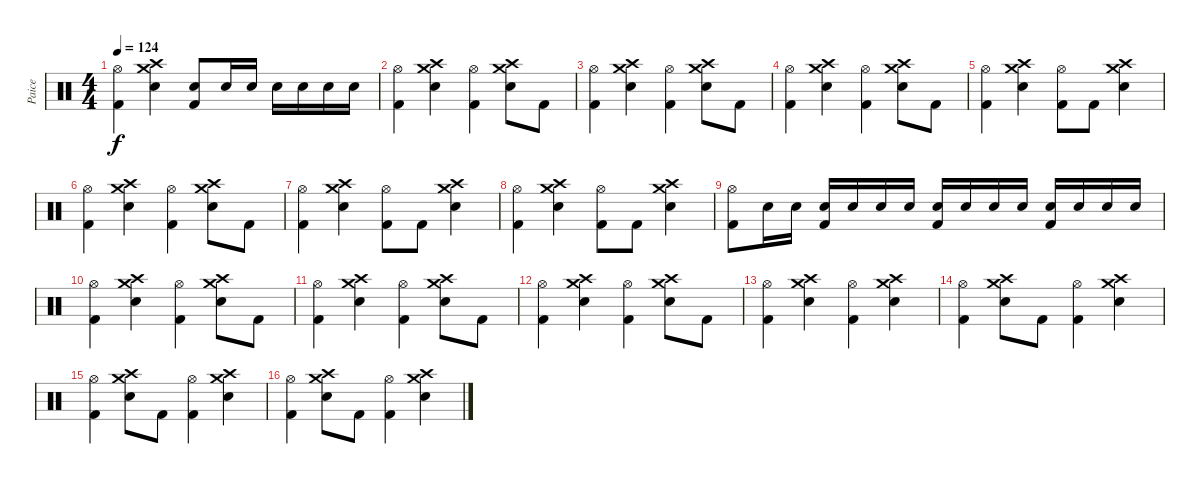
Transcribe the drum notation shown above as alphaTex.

\track ("Paice" "Paice") {instrument percussion}
\staff {score}
\articulation defaults
\ts (4 4)
\tempo 124
\clef neutral
\ks c
("Hi-Hat (open)" "Kick (hit) 2").4{dy f} ("Crash high (hit)" "Crash medium (hit)" "Electric Snare (hit)").4 ("Electric Snare (hit)" "Kick (hit) 2").8 "Electric Snare (hit)".16 "Electric Snare (hit)".16 "Electric Snare (hit)".16 "Electric Snare (hit)".16 "Electric Snare (hit)".16 "Electric Snare (hit)".16 |
("Hi-Hat (open)" "Kick (hit) 2").4 ("Crash high (hit)" "Crash medium (hit)" "Electric Snare (hit)").4 ("Hi-Hat (open)" "Kick (hit) 2").4 ("Crash high (hit)" "Crash medium (hit)" "Electric Snare (hit)").8 "Kick (hit) 2".8 |
("Hi-Hat (open)" "Kick (hit) 2").4 ("Crash high (hit)" "Crash medium (hit)" "Electric Snare (hit)").4 ("Hi-Hat (open)" "Kick (hit) 2").4 ("Crash high (hit)" "Crash medium (hit)" "Electric Snare (hit)").8 "Kick (hit) 2".8 |
("Hi-Hat (open)" "Kick (hit) 2").4 ("Crash high (hit)" "Crash medium (hit)" "Electric Snare (hit)").4 ("Hi-Hat (open)" "Kick (hit) 2").4 ("Crash high (hit)" "Crash medium (hit)" "Electric Snare (hit)").8 "Kick (hit) 2".8 |
("Hi-Hat (open)" "Kick (hit) 2").4 ("Crash high (hit)" "Crash medium (hit)" "Electric Snare (hit)").4 ("Hi-Hat (open)" "Kick (hit) 2").8 "Kick (hit) 2".8 ("Crash high (hit)" "Crash medium (hit)" "Electric Snare (hit)").4 |
("Hi-Hat (open)" "Kick (hit) 2").4 ("Crash high (hit)" "Crash medium (hit)" "Electric Snare (hit)").4 ("Hi-Hat (open)" "Kick (hit) 2").4 ("Crash high (hit)" "Crash medium (hit)" "Electric Snare (hit)").8 "Kick (hit) 2".8 |
("Hi-Hat (open)" "Kick (hit) 2").4 ("Crash high (hit)" "Crash medium (hit)" "Electric Snare (hit)").4 ("Hi-Hat (open)" "Kick (hit) 2").8 "Kick (hit) 2".8 ("Crash high (hit)" "Crash medium (hit)" "Electric Snare (hit)").4 |
("Hi-Hat (open)" "Kick (hit) 2").4 ("Crash high (hit)" "Crash medium (hit)" "Electric Snare (hit)").4 ("Hi-Hat (open)" "Kick (hit) 2").8 "Kick (hit) 2".8 ("Crash high (hit)" "Crash medium (hit)" "Electric Snare (hit)").4 |
("Hi-Hat (open)" "Kick (hit) 2").8 "Electric Snare (hit)".16 "Electric Snare (hit)".16 ("Electric Snare (hit)" "Kick (hit) 2").16 "Electric Snare (hit)".16 "Electric Snare (hit)".16 "Electric Snare (hit)".16 ("Electric Snare (hit)" "Kick (hit) 2").16 "Electric Snare (hit)".16 "Electric Snare (hit)".16 "Electric Snare (hit)".16 ("Electric Snare (hit)" "Kick (hit) 2").16 "Electric Snare (hit)".16 "Electric Snare (hit)".16 "Electric Snare (hit)".16 |
("Hi-Hat (open)" "Kick (hit) 2").4 ("Crash high (hit)" "Crash medium (hit)" "Electric Snare (hit)").4 ("Hi-Hat (open)" "Kick (hit) 2").4 ("Crash high (hit)" "Crash medium (hit)" "Electric Snare (hit)").8 "Kick (hit) 2".8 |
("Hi-Hat (open)" "Kick (hit) 2").4{volume 8} ("Crash high (hit)" "Crash medium (hit)" "Electric Snare (hit)").4 ("Hi-Hat (open)" "Kick (hit) 2").4 ("Crash high (hit)" "Crash medium (hit)" "Electric Snare (hit)").8 "Kick (hit) 2".8 |
("Hi-Hat (open)" "Kick (hit) 2").4 ("Crash high (hit)" "Crash medium (hit)" "Electric Snare (hit)").4 ("Hi-Hat (open)" "Kick (hit) 2").4 ("Crash high (hit)" "Crash medium (hit)" "Electric Snare (hit)").8 "Kick (hit) 2".8 |
("Hi-Hat (open)" "Kick (hit) 2").4 ("Crash high (hit)" "Crash medium (hit)" "Electric Snare (hit)").4 ("Hi-Hat (open)" "Kick (hit) 2").4 ("Crash high (hit)" "Crash medium (hit)" "Electric Snare (hit)").4 |
("Hi-Hat (open)" "Kick (hit) 2").4 ("Crash high (hit)" "Crash medium (hit)" "Electric Snare (hit)").8 "Kick (hit) 2".8 ("Hi-Hat (open)" "Kick (hit) 2").4 ("Crash high (hit)" "Crash medium (hit)" "Electric Snare (hit)").4 |
("Hi-Hat (open)" "Kick (hit) 2").4{volume 0} ("Crash high (hit)" "Crash medium (hit)" "Electric Snare (hit)").8 "Kick (hit) 2".8 ("Hi-Hat (open)" "Kick (hit) 2").4 ("Crash high (hit)" "Crash medium (hit)" "Electric Snare (hit)").4 |
("Hi-Hat (open)" "Kick (hit) 2").4 ("Crash high (hit)" "Crash medium (hit)" "Electric Snare (hit)").8 "Kick (hit) 2".8 ("Hi-Hat (open)" "Kick (hit) 2").4 ("Crash high (hit)" "Crash medium (hit)" "Electric Snare (hit)").4
